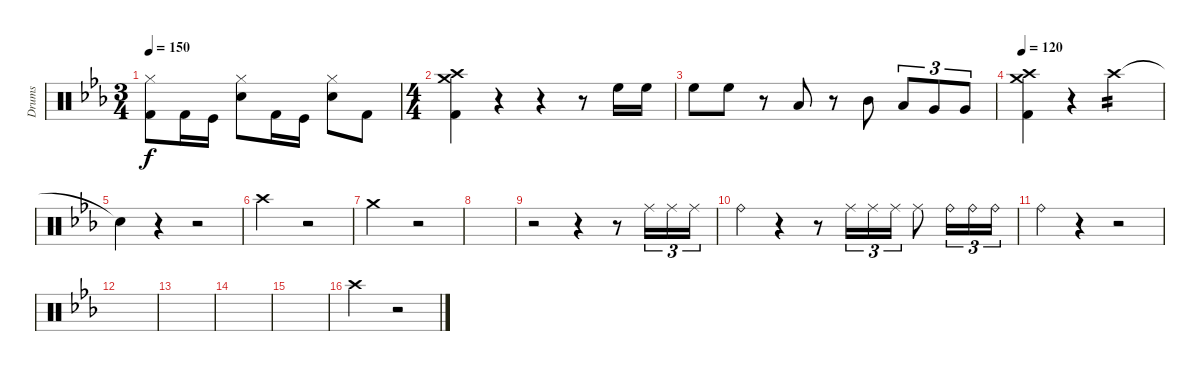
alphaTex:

\track ("Drums" "Drums") {instrument percussion}
\staff {score}
\articulation defaults
\ts (3 4)
\tempo 150
\clef neutral
\ks eb
("Hi-Hat (closed)" "Kick (hit) 2").8{dy f} "Kick (hit) 2".16 "Kick (hit)".16 ("Hi-Hat (closed)" "Electric Snare (hit)").8 "Kick (hit) 2".16 "Kick (hit)".16 ("Hi-Hat (closed)" "Electric Snare (hit)").8 "Kick (hit) 2".8 |
\ts (4 4)
("Crash high (hit)" "Crash medium (hit)" "Kick (hit) 2").4 r.4 r.4 r.8 "High Floor Tom (hit)".16 "High Floor Tom (hit)".16 |
"High Floor Tom (hit)".8 "High Floor Tom (hit)".8 r.8 "Low Tom (hit)".8 r.8 "Mid Tom (hit)".8 "Low Tom (hit)".8{tu (3 2)} "Very Low Tom (hit)".8{tu (3 2)} "Very Low Tom (hit)".8{tu (3 2)} |
\tempo 120
("Crash high (hit)" "Crash medium (hit)" "Kick (hit) 2").4 r.4 "Crash high (hit)".2{tp 2} |
"Snare (hit)"{t}.4 r.4 r.2 |
"Crash high (hit)".2 r.2 |
"Crash medium (hit)".2 r.2 |
|
r.2 r.4 r.8 "Ride (middle)".16{tu (3 2)} "Ride (middle)".16{tu (3 2)} "Ride (middle)".16{tu (3 2)} |
"Ride (bell)".4 r.4 r.8 "Ride (middle)".16{tu (3 2)} "Ride (middle)".16{tu (3 2)} "Ride (middle)".16{tu (3 2)} "Ride (middle)".8 "Ride (bell)".16{tu (3 2)} "Ride (bell)".16{tu (3 2)} "Ride (bell)".16{tu (3 2)} |
"Ride (bell)".4 r.4 r.2 |
|
|
|
|
"Crash high (hit)".2 r.2
